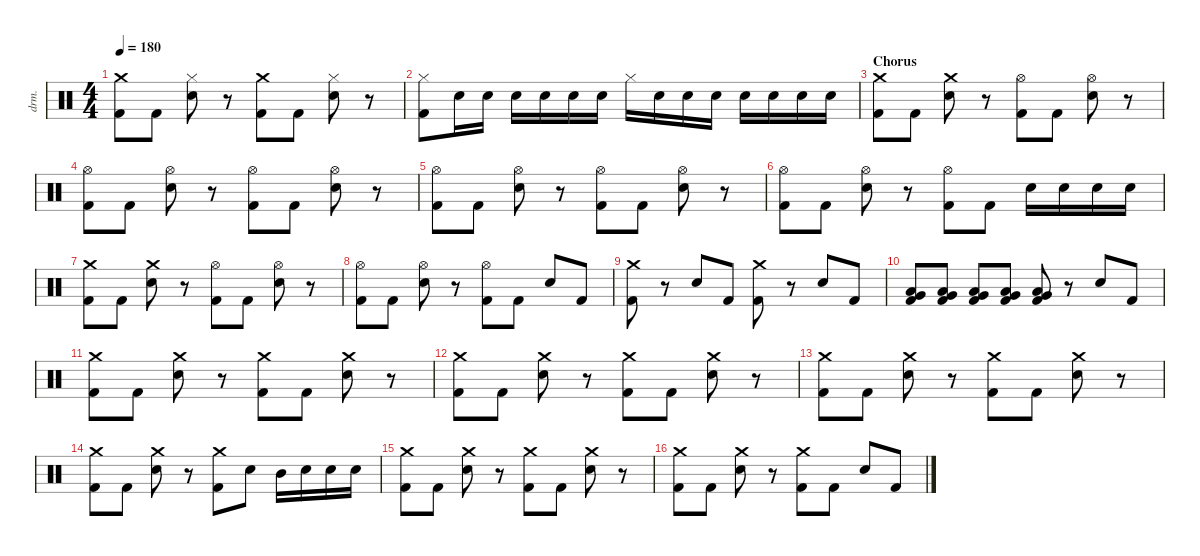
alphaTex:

\defaultSystemsLayout 4
\hideDynamics
\bracketExtendMode nobrackets
\otherSystemsTrackNameOrientation horizontal
\track ("Drums" "drm.") {instrument percussion}
\staff {score}
\articulation defaults
\ts (4 4)
\tempo 180
\clef neutral
\ks c
("Crash medium (hit)" "Kick (hit) 2").8{dy f beam Down} "Kick (hit) 2".8{beam Down} ("Hi-Hat (closed)" "Snare (hit) 2").8{beam Down} r.8{beam Down} ("Crash medium (hit)" "Kick (hit) 2").8{beam Down} "Kick (hit) 2".8{beam Down} ("Hi-Hat (closed)" "Snare (hit) 2").8{beam Down} r.8{beam Down} |
("Hi-Hat (closed)" "Kick (hit) 2").8{beam Down} "Snare (hit) 2".16{beam Down} "Snare (hit) 2".16{beam Down} "Snare (hit) 2".16{beam Down} "Snare (hit) 2".16{beam Down} "Snare (hit) 2".16{beam Down} "Snare (hit) 2".16{beam Down} "Hi-Hat (closed)".16{beam Down} "Snare (hit) 2".16{beam Down} "Snare (hit) 2".16{beam Down} "Snare (hit) 2".16{beam Down} "Snare (hit) 2".16{beam Down} "Snare (hit) 2".16{beam Down} "Snare (hit) 2".16{beam Down} "Snare (hit) 2".16{beam Down} |
\section ("" "Chorus")
("Crash medium (hit)" "Kick (hit) 2").8{beam Down} "Kick (hit) 2".8{beam Down} ("Crash medium (hit)" "Snare (hit) 2").8{beam Down} r.8{beam Down} ("Hi-Hat (open)" "Kick (hit) 2").8{beam Down} "Kick (hit) 2".8{beam Down} ("Hi-Hat (open)" "Snare (hit) 2").8{beam Down} r.8{beam Down} |
("Hi-Hat (open)" "Kick (hit) 2").8{beam Down} "Kick (hit) 2".8{beam Down} ("Hi-Hat (open)" "Snare (hit) 2").8{beam Down} r.8{beam Down} ("Hi-Hat (open)" "Kick (hit) 2").8{beam Down} "Kick (hit) 2".8{beam Down} ("Hi-Hat (open)" "Snare (hit) 2").8{beam Down} r.8{beam Down} |
("Hi-Hat (open)" "Kick (hit) 2").8{beam Down} "Kick (hit) 2".8{beam Down} ("Hi-Hat (open)" "Snare (hit) 2").8{beam Down} r.8{beam Down} ("Hi-Hat (open)" "Kick (hit) 2").8{beam Down} "Kick (hit) 2".8{beam Down} ("Hi-Hat (open)" "Snare (hit) 2").8{beam Down} r.8{beam Down} |
("Hi-Hat (open)" "Kick (hit) 2").8{beam Down} "Kick (hit) 2".8{beam Down} ("Hi-Hat (open)" "Snare (hit) 2").8{beam Down} r.8{beam Down} ("Hi-Hat (open)" "Kick (hit) 2").8{beam Down} "Kick (hit) 2".8{beam Down} "Snare (hit) 2".16{beam Down} "Snare (hit) 2".16{beam Down} "Snare (hit) 2".16{beam Down} "Snare (hit) 2".16{beam Down} |
("Crash medium (hit)" "Kick (hit) 2").8{beam Down} "Kick (hit) 2".8{beam Down} ("Crash medium (hit)" "Snare (hit) 2").8{beam Down} r.8{beam Down} ("Hi-Hat (open)" "Kick (hit) 2").8{beam Down} "Kick (hit) 2".8{beam Down} ("Hi-Hat (open)" "Snare (hit) 2").8{beam Down} r.8{beam Down} |
("Hi-Hat (open)" "Kick (hit) 2").8{beam Down} "Kick (hit) 2".8{beam Down} ("Hi-Hat (open)" "Snare (hit) 2").8{beam Down} r.8{beam Down} ("Hi-Hat (open)" "Kick (hit) 2").8{beam Down} "Kick (hit) 2".8{beam Down} "Snare (hit) 2".8{beam Up} "Kick (hit) 2".8{beam Up} |
("Crash medium (hit)" "Kick (hit) 2").8{beam Down} r.8{beam Down} "Snare (hit) 2".8{beam Up} "Kick (hit) 2".8{beam Up} ("Crash medium (hit)" "Kick (hit) 2").8{beam Down} r.8{beam Down} "Snare (hit) 2".8{beam Up} "Kick (hit) 2".8{beam Up} |
("Very Low Tom (hit)" "Low Tom (hit)" "Kick (hit) 2").8{beam Up} ("Very Low Tom (hit)" "Low Tom (hit)" "Kick (hit) 2").8{beam Up} ("Very Low Tom (hit)" "Low Tom (hit)" "Kick (hit) 2").8{beam Up} ("Very Low Tom (hit)" "Low Tom (hit)" "Kick (hit) 2").8{beam Up} ("Very Low Tom (hit)" "Low Tom (hit)" "Kick (hit) 2").8{beam Up} r.8{beam Up} "Snare (hit) 2".8{beam Up} "Kick (hit) 2".8{beam Up} |
("Crash medium (hit)" "Kick (hit) 2").8{beam Down} "Kick (hit) 2".8{beam Down} ("Crash medium (hit)" "Snare (hit) 2").8{beam Down} r.8{beam Down} ("Crash medium (hit)" "Kick (hit) 2").8{beam Down} "Kick (hit) 2".8{beam Down} ("Crash medium (hit)" "Snare (hit) 2").8{beam Down} r.8{beam Down} |
("Crash medium (hit)" "Kick (hit) 2").8{beam Down} "Kick (hit) 2".8{beam Down} ("Crash medium (hit)" "Snare (hit) 2").8{beam Down} r.8{beam Down} ("Crash medium (hit)" "Kick (hit) 2").8{beam Down} "Kick (hit) 2".8{beam Down} ("Crash medium (hit)" "Snare (hit) 2").8{beam Down} r.8{beam Down} |
("Crash medium (hit)" "Kick (hit) 2").8{beam Down} "Kick (hit) 2".8{beam Down} ("Crash medium (hit)" "Snare (hit) 2").8{beam Down} r.8{beam Down} ("Crash medium (hit)" "Kick (hit) 2").8{beam Down} "Kick (hit) 2".8{beam Down} ("Crash medium (hit)" "Snare (hit) 2").8{beam Down} r.8{beam Down} |
("Crash medium (hit)" "Kick (hit) 2").8{beam Down} "Kick (hit) 2".8{beam Down} ("Crash medium (hit)" "Snare (hit) 2").8{beam Down} r.8{beam Down} ("Crash medium (hit)" "Kick (hit) 2").8{beam Down} "Snare (hit) 2".8{beam Down} "Mid Tom (hit)".16{beam Down} "Snare (hit) 2".16{beam Down} "Snare (hit) 2".16{beam Down} "Snare (hit) 2".16{beam Down} |
("Crash medium (hit)" "Kick (hit) 2").8{beam Down} "Kick (hit) 2".8{beam Down} ("Crash medium (hit)" "Snare (hit) 2").8{beam Down} r.8{beam Down} ("Crash medium (hit)" "Kick (hit) 2").8{beam Down} "Kick (hit) 2".8{beam Down} ("Crash medium (hit)" "Snare (hit) 2").8{beam Down} r.8{beam Down} |
("Crash medium (hit)" "Kick (hit) 2").8{beam Down} "Kick (hit) 2".8{beam Down} ("Crash medium (hit)" "Snare (hit) 2").8{beam Down} r.8{beam Down} ("Crash medium (hit)" "Kick (hit) 2").8{beam Down} "Kick (hit) 2".8{beam Down} "Snare (hit) 2".8{beam Up} "Kick (hit) 2".8{beam Up}
